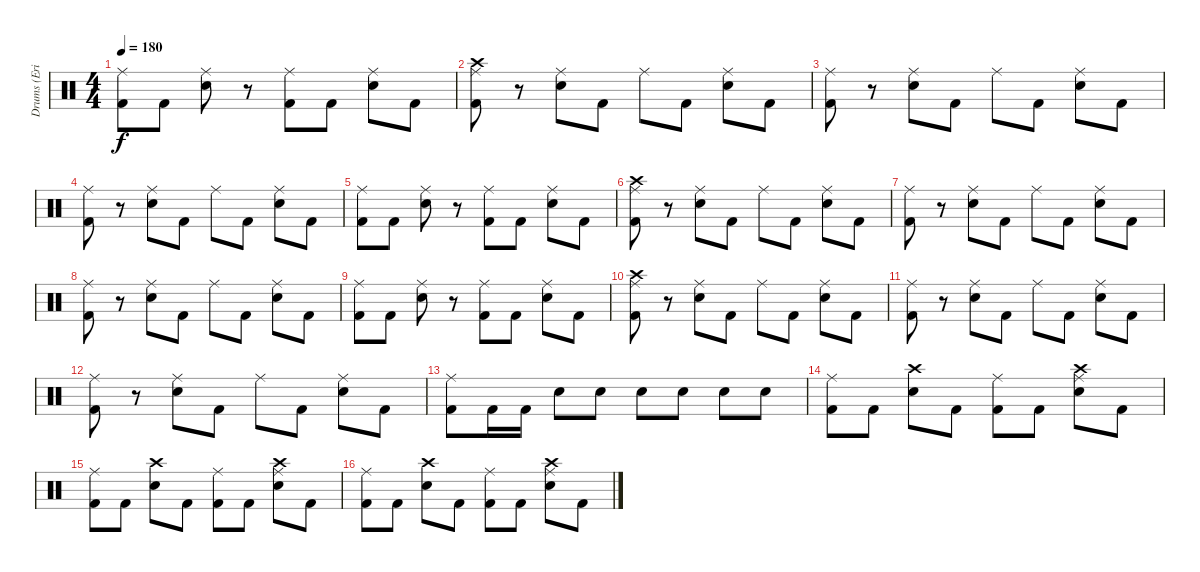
\track ("Drums (Eric Young)" "Drums (Eri") {instrument percussion}
\staff {score}
\articulation defaults
\ts (4 4)
\tempo 180
\clef neutral
\ks c
("Ride (middle)" "Kick (hit) 2").8{dy f} "Kick (hit) 2".8 ("Ride (middle)" "Snare (hit) 2").8 r.8 ("Ride (middle)" "Kick (hit) 2").8 "Kick (hit) 2".8 ("Ride (middle)" "Snare (hit) 2").8 "Kick (hit) 2".8 |
("Crash high (hit)" "Ride (middle)" "Kick (hit) 2").8 r.8 ("Ride (middle)" "Snare (hit) 2").8 "Kick (hit) 2".8 "Ride (middle)".8 "Kick (hit) 2".8 ("Ride (middle)" "Snare (hit) 2").8 "Kick (hit) 2".8 |
("Ride (middle)" "Kick (hit) 2").8 r.8 ("Ride (middle)" "Snare (hit) 2").8 "Kick (hit) 2".8 "Ride (middle)".8 "Kick (hit) 2".8 ("Ride (middle)" "Snare (hit) 2").8 "Kick (hit) 2".8 |
("Ride (middle)" "Kick (hit) 2").8 r.8 ("Ride (middle)" "Snare (hit) 2").8 "Kick (hit) 2".8 "Ride (middle)".8 "Kick (hit) 2".8 ("Ride (middle)" "Snare (hit) 2").8 "Kick (hit) 2".8 |
("Ride (middle)" "Kick (hit) 2").8 "Kick (hit) 2".8 ("Ride (middle)" "Snare (hit) 2").8 r.8 ("Ride (middle)" "Kick (hit) 2").8 "Kick (hit) 2".8 ("Ride (middle)" "Snare (hit) 2").8 "Kick (hit) 2".8 |
("Crash high (hit)" "Ride (middle)" "Kick (hit) 2").8 r.8 ("Ride (middle)" "Snare (hit) 2").8 "Kick (hit) 2".8 "Ride (middle)".8 "Kick (hit) 2".8 ("Ride (middle)" "Snare (hit) 2").8 "Kick (hit) 2".8 |
("Ride (middle)" "Kick (hit) 2").8 r.8 ("Ride (middle)" "Snare (hit) 2").8 "Kick (hit) 2".8 "Ride (middle)".8 "Kick (hit) 2".8 ("Ride (middle)" "Snare (hit) 2").8 "Kick (hit) 2".8 |
("Ride (middle)" "Kick (hit) 2").8 r.8 ("Ride (middle)" "Snare (hit) 2").8 "Kick (hit) 2".8 "Ride (middle)".8 "Kick (hit) 2".8 ("Ride (middle)" "Snare (hit) 2").8 "Kick (hit) 2".8 |
("Ride (middle)" "Kick (hit) 2").8 "Kick (hit) 2".8 ("Ride (middle)" "Snare (hit) 2").8 r.8 ("Ride (middle)" "Kick (hit) 2").8 "Kick (hit) 2".8 ("Ride (middle)" "Snare (hit) 2").8 "Kick (hit) 2".8 |
("Crash high (hit)" "Ride (middle)" "Kick (hit) 2").8 r.8 ("Ride (middle)" "Snare (hit) 2").8 "Kick (hit) 2".8 "Ride (middle)".8 "Kick (hit) 2".8 ("Ride (middle)" "Snare (hit) 2").8 "Kick (hit) 2".8 |
("Ride (middle)" "Kick (hit) 2").8 r.8 ("Ride (middle)" "Snare (hit) 2").8 "Kick (hit) 2".8 "Ride (middle)".8 "Kick (hit) 2".8 ("Ride (middle)" "Snare (hit) 2").8 "Kick (hit) 2".8 |
("Ride (middle)" "Kick (hit) 2").8 r.8 ("Ride (middle)" "Snare (hit) 2").8 "Kick (hit) 2".8 "Ride (middle)".8 "Kick (hit) 2".8 ("Ride (middle)" "Snare (hit) 2").8 "Kick (hit) 2".8 |
("Ride (middle)" "Kick (hit) 2").8 "Kick (hit) 2".16 "Kick (hit) 2".16 "Snare (hit) 2".8 "Snare (hit) 2".8 "Snare (hit) 2".8 "Snare (hit) 2".8 "Snare (hit) 2".8 "Snare (hit) 2".8 |
("Ride (middle)" "Kick (hit) 2").8 "Kick (hit) 2".8 ("Crash high (hit)" "Snare (hit) 2").8 "Kick (hit) 2".8 ("Ride (middle)" "Kick (hit) 2").8 "Kick (hit) 2".8 ("Crash high (hit)" "Ride (middle)" "Snare (hit) 2").8 "Kick (hit) 2".8 |
("Ride (middle)" "Kick (hit) 2").8 "Kick (hit) 2".8 ("Crash high (hit)" "Snare (hit) 2").8 "Kick (hit) 2".8 ("Ride (middle)" "Kick (hit) 2").8 "Kick (hit) 2".8 ("Crash high (hit)" "Ride (middle)" "Snare (hit) 2").8 "Kick (hit) 2".8 |
("Ride (middle)" "Kick (hit) 2").8 "Kick (hit) 2".8 ("Crash high (hit)" "Snare (hit) 2").8 "Kick (hit) 2".8 ("Ride (middle)" "Kick (hit) 2").8 "Kick (hit) 2".8 ("Crash high (hit)" "Ride (middle)" "Snare (hit) 2").8 "Kick (hit) 2".8
